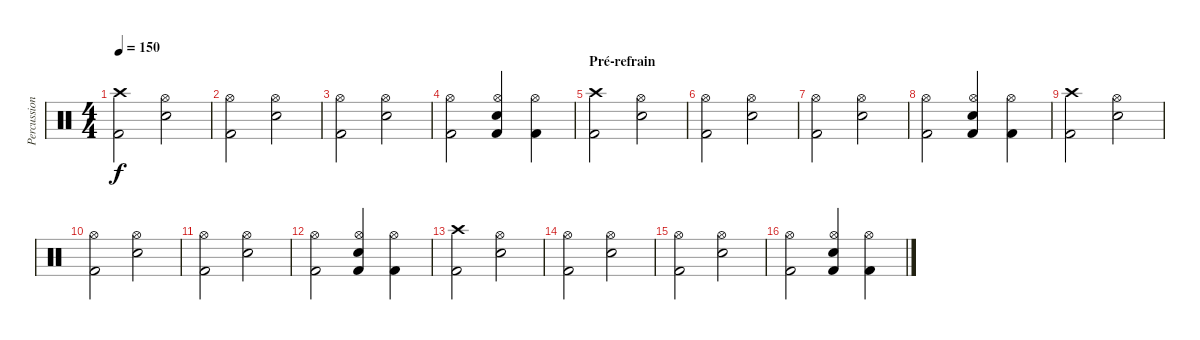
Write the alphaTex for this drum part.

\track ("Percussions" "Percussion") {instrument percussion}
\staff {score}
\articulation defaults
\ts (4 4)
\tempo 150
\clef neutral
\ks c
("Crash high (hit)" "Kick (hit) 2").2{dy f} ("Hi-Hat (open)" "Snare (hit) 2").2 |
("Hi-Hat (open)" "Kick (hit) 2").2 ("Hi-Hat (open)" "Snare (hit) 2").2 |
("Hi-Hat (open)" "Kick (hit) 2").2 ("Hi-Hat (open)" "Snare (hit) 2").2 |
("Hi-Hat (open)" "Kick (hit) 2").2 ("Hi-Hat (open)" "Snare (hit) 2" "Kick (hit) 2").4 ("Hi-Hat (open)" "Kick (hit) 2").4 |
\section ("" "Pré-refrain")
("Crash high (hit)" "Kick (hit) 2").2 ("Hi-Hat (open)" "Snare (hit) 2").2 |
("Hi-Hat (open)" "Kick (hit) 2").2 ("Hi-Hat (open)" "Snare (hit) 2").2 |
("Hi-Hat (open)" "Kick (hit) 2").2 ("Hi-Hat (open)" "Snare (hit) 2").2 |
("Hi-Hat (open)" "Kick (hit) 2").2 ("Hi-Hat (open)" "Snare (hit) 2" "Kick (hit) 2").4 ("Hi-Hat (open)" "Kick (hit) 2").4 |
("Crash high (hit)" "Kick (hit) 2").2 ("Hi-Hat (open)" "Snare (hit) 2").2 |
("Hi-Hat (open)" "Kick (hit) 2").2 ("Hi-Hat (open)" "Snare (hit) 2").2 |
("Hi-Hat (open)" "Kick (hit) 2").2 ("Hi-Hat (open)" "Snare (hit) 2").2 |
("Hi-Hat (open)" "Kick (hit) 2").2 ("Hi-Hat (open)" "Snare (hit) 2" "Kick (hit) 2").4 ("Hi-Hat (open)" "Kick (hit) 2").4 |
("Crash high (hit)" "Kick (hit) 2").2 ("Hi-Hat (open)" "Snare (hit) 2").2 |
("Hi-Hat (open)" "Kick (hit) 2").2 ("Hi-Hat (open)" "Snare (hit) 2").2 |
("Hi-Hat (open)" "Kick (hit) 2").2 ("Hi-Hat (open)" "Snare (hit) 2").2 |
("Hi-Hat (open)" "Kick (hit) 2").2 ("Hi-Hat (open)" "Snare (hit) 2" "Kick (hit) 2").4 ("Hi-Hat (open)" "Kick (hit) 2").4
